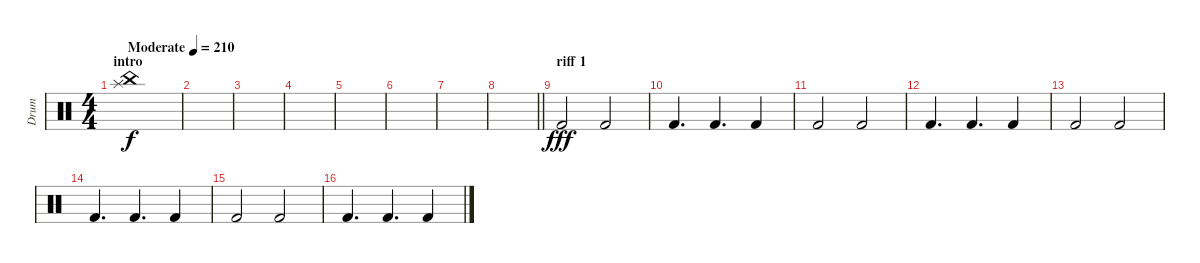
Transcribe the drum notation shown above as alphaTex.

\track ("Drum" "Drum") {instrument percussion}
\staff {score}
\articulation defaults
\ts (4 4)
\section ("" "intro")
\tempo (210 "Moderate")
\clef neutral
\ks c
("China (hit)" "Splash (hit)").1{dy f} |
|
|
|
|
|
|
\barLineRight lightlight
|
\section ("" "riff 1")
"Kick (hit) 2".2{dy fff} "Kick (hit) 2".2 |
"Kick (hit) 2".4{d} "Kick (hit) 2".4{d} "Kick (hit) 2".4 |
"Kick (hit) 2".2 "Kick (hit) 2".2 |
"Kick (hit) 2".4{d} "Kick (hit) 2".4{d} "Kick (hit) 2".4 |
"Kick (hit) 2".2 "Kick (hit) 2".2 |
"Kick (hit) 2".4{d} "Kick (hit) 2".4{d} "Kick (hit) 2".4 |
"Kick (hit) 2".2 "Kick (hit) 2".2 |
"Kick (hit) 2".4{d} "Kick (hit) 2".4{d} "Kick (hit) 2".4
